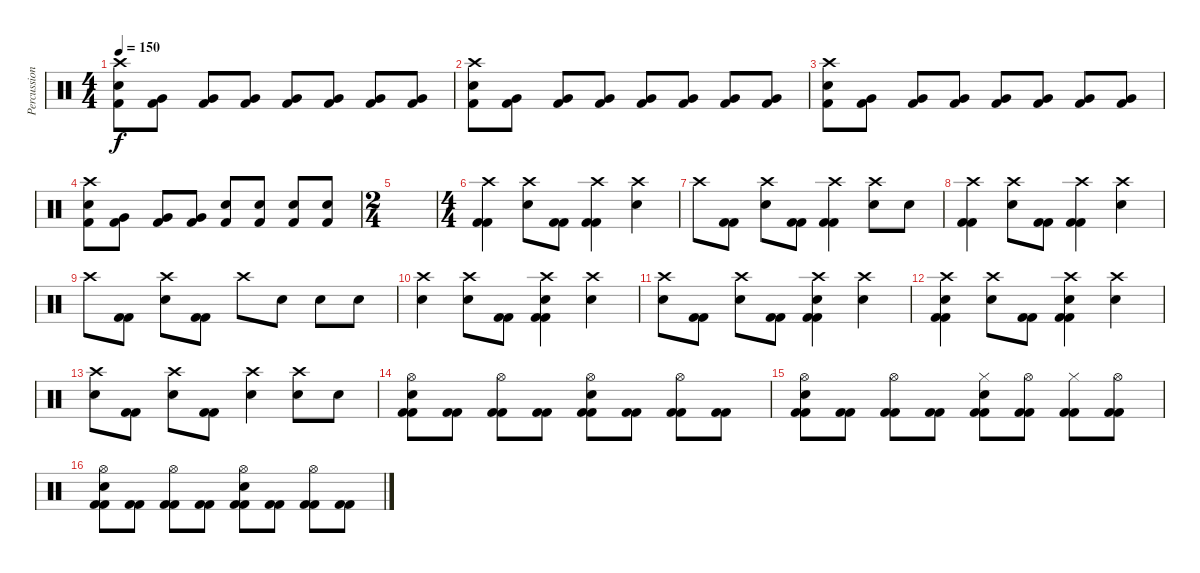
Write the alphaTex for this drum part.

\track ("Percussions" "Percussion") {instrument percussion}
\staff {score}
\articulation defaults
\ts (4 4)
\tempo 150
\clef neutral
\ks c
("Kick (hit) 2" "Electric Snare (hit)" "Crash high (hit)").8{dy f} ("Kick (hit) 2" "Very Low Tom (hit)").8 ("Kick (hit) 2" "Very Low Tom (hit)").8 ("Kick (hit) 2" "Very Low Tom (hit)").8 ("Kick (hit) 2" "Very Low Tom (hit)").8 ("Kick (hit) 2" "Very Low Tom (hit)").8 ("Kick (hit) 2" "Very Low Tom (hit)").8 ("Kick (hit) 2" "Very Low Tom (hit)").8 |
("Kick (hit) 2" "Electric Snare (hit)" "Crash high (hit)").8 ("Kick (hit) 2" "Very Low Tom (hit)").8 ("Kick (hit) 2" "Very Low Tom (hit)").8 ("Kick (hit) 2" "Very Low Tom (hit)").8 ("Kick (hit) 2" "Very Low Tom (hit)").8 ("Kick (hit) 2" "Very Low Tom (hit)").8 ("Kick (hit) 2" "Very Low Tom (hit)").8 ("Kick (hit) 2" "Very Low Tom (hit)").8 |
("Kick (hit) 2" "Electric Snare (hit)" "Crash high (hit)").8 ("Kick (hit) 2" "Very Low Tom (hit)").8 ("Kick (hit) 2" "Very Low Tom (hit)").8 ("Kick (hit) 2" "Very Low Tom (hit)").8 ("Kick (hit) 2" "Very Low Tom (hit)").8 ("Kick (hit) 2" "Very Low Tom (hit)").8 ("Kick (hit) 2" "Very Low Tom (hit)").8 ("Kick (hit) 2" "Very Low Tom (hit)").8 |
("Kick (hit) 2" "Electric Snare (hit)" "Crash high (hit)").8 ("Kick (hit) 2" "Very Low Tom (hit)").8 ("Kick (hit) 2" "Very Low Tom (hit)").8 ("Kick (hit) 2" "Very Low Tom (hit)").8 ("Kick (hit) 2" "Electric Snare (hit)").8 ("Kick (hit) 2" "Electric Snare (hit)").8 ("Kick (hit) 2" "Electric Snare (hit)").8 ("Kick (hit) 2" "Electric Snare (hit)").8 |
\ts (2 4)
|
\ts (4 4)
("Kick (hit) 2" "Kick (hit) 2" "Crash high (hit)").4 ("Electric Snare (hit)" "Crash high (hit)").8 ("Kick (hit) 2" "Kick (hit) 2").8 ("Kick (hit) 2" "Kick (hit) 2" "Crash high (hit)").4 ("Electric Snare (hit)" "Crash high (hit)").4 |
"Crash high (hit)".8 ("Kick (hit) 2" "Kick (hit) 2").8 ("Electric Snare (hit)" "Crash high (hit)").8 ("Kick (hit) 2" "Kick (hit) 2").8 ("Kick (hit) 2" "Kick (hit) 2" "Crash high (hit)").4 ("Electric Snare (hit)" "Crash high (hit)").8 "Electric Snare (hit)".8 |
("Kick (hit) 2" "Kick (hit) 2" "Crash high (hit)").4 ("Electric Snare (hit)" "Crash high (hit)").8 ("Kick (hit) 2" "Kick (hit) 2").8 ("Kick (hit) 2" "Kick (hit) 2" "Crash high (hit)").4 ("Electric Snare (hit)" "Crash high (hit)").4 |
"Crash high (hit)".8 ("Kick (hit) 2" "Kick (hit) 2").8 ("Electric Snare (hit)" "Crash high (hit)").8 ("Kick (hit) 2" "Kick (hit) 2").8 "Crash high (hit)".8 "Electric Snare (hit)".8 "Electric Snare (hit)".8 "Electric Snare (hit)".8 |
("Electric Snare (hit)" "Crash high (hit)").4 ("Electric Snare (hit)" "Crash high (hit)").8 ("Kick (hit) 2" "Kick (hit) 2").8 ("Kick (hit) 2" "Kick (hit) 2" "Electric Snare (hit)" "Crash high (hit)").4 ("Electric Snare (hit)" "Crash high (hit)").4 |
("Electric Snare (hit)" "Crash high (hit)").8 ("Kick (hit) 2" "Kick (hit) 2").8 ("Electric Snare (hit)" "Crash high (hit)").8 ("Kick (hit) 2" "Kick (hit) 2").8 ("Kick (hit) 2" "Kick (hit) 2" "Electric Snare (hit)" "Crash high (hit)").4 ("Electric Snare (hit)" "Crash high (hit)").4 |
("Kick (hit) 2" "Kick (hit) 2" "Electric Snare (hit)" "Crash high (hit)").4 ("Electric Snare (hit)" "Crash high (hit)").8 ("Kick (hit) 2" "Kick (hit) 2").8 ("Kick (hit) 2" "Kick (hit) 2" "Electric Snare (hit)" "Crash high (hit)").4 ("Electric Snare (hit)" "Crash high (hit)").4 |
("Electric Snare (hit)" "Crash high (hit)").8 ("Kick (hit) 2" "Kick (hit) 2").8 ("Electric Snare (hit)" "Crash high (hit)").8 ("Kick (hit) 2" "Kick (hit) 2").8 ("Electric Snare (hit)" "Crash high (hit)").4 ("Electric Snare (hit)" "Crash high (hit)").8 "Electric Snare (hit)".8 |
("Kick (hit) 2" "Kick (hit) 2" "Electric Snare (hit)" "Hi-Hat (open)").8 ("Kick (hit) 2" "Kick (hit) 2").8 ("Kick (hit) 2" "Kick (hit) 2" "Hi-Hat (open)").8 ("Kick (hit) 2" "Kick (hit) 2").8 ("Kick (hit) 2" "Kick (hit) 2" "Electric Snare (hit)" "Hi-Hat (open)").8 ("Kick (hit) 2" "Kick (hit) 2").8 ("Kick (hit) 2" "Kick (hit) 2" "Hi-Hat (open)").8 ("Kick (hit) 2" "Kick (hit) 2").8 |
("Kick (hit) 2" "Kick (hit) 2" "Electric Snare (hit)" "Hi-Hat (open)").8 ("Kick (hit) 2" "Kick (hit) 2").8 ("Kick (hit) 2" "Kick (hit) 2" "Hi-Hat (open)").8 ("Kick (hit) 2" "Kick (hit) 2").8 ("Kick (hit) 2" "Kick (hit) 2" "Electric Snare (hit)" "Hi-Hat (closed)").8 ("Kick (hit) 2" "Kick (hit) 2" "Hi-Hat (open)").8 ("Kick (hit) 2" "Kick (hit) 2" "Hi-Hat (closed)").8 ("Kick (hit) 2" "Kick (hit) 2" "Hi-Hat (open)").8 |
("Kick (hit) 2" "Kick (hit) 2" "Electric Snare (hit)" "Hi-Hat (open)").8 ("Kick (hit) 2" "Kick (hit) 2").8 ("Kick (hit) 2" "Kick (hit) 2" "Hi-Hat (open)").8 ("Kick (hit) 2" "Kick (hit) 2").8 ("Kick (hit) 2" "Kick (hit) 2" "Electric Snare (hit)" "Hi-Hat (open)").8 ("Kick (hit) 2" "Kick (hit) 2").8 ("Kick (hit) 2" "Kick (hit) 2" "Hi-Hat (open)").8 ("Kick (hit) 2" "Kick (hit) 2").8
